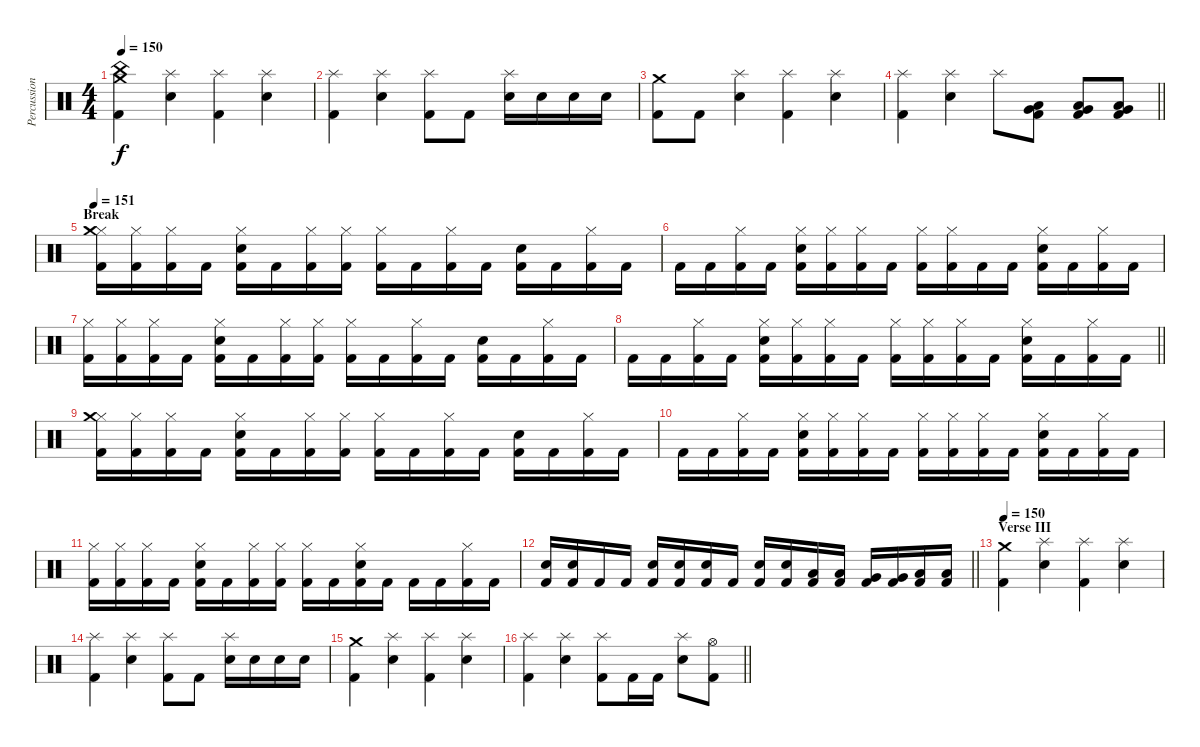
\track ("Percussion" "Percussion") {instrument percussion}
\staff {score}
\articulation defaults
\ts (4 4)
\section ("" "")
\tempo 150
\clef neutral
\ks c
("Kick (hit) 2" "China (hit)" "Crash medium (hit)").4{dy f} ("Snare (hit) 2" "Splash (hit)").4 ("Kick (hit) 2" "Splash (hit)").4 ("Snare (hit) 2" "Splash (hit)").4 |
("Kick (hit) 2" "Splash (hit)").4 ("Snare (hit) 2" "Splash (hit)").4 ("Kick (hit) 2" "Splash (hit)").8 "Kick (hit) 2".8 ("Snare (hit) 2" "Splash (hit)").16 "Snare (hit) 2".16 "Snare (hit) 2".16 "Snare (hit) 2".16 |
("Kick (hit) 2" "Crash medium (hit)").8 "Kick (hit) 2".8 ("Snare (hit) 2" "Splash (hit)").4 ("Kick (hit) 2" "Splash (hit)").4 ("Snare (hit) 2" "Splash (hit)").4 |
\barLineRight lightlight
("Kick (hit) 2" "Splash (hit)").4 ("Snare (hit) 2" "Splash (hit)").4 "Splash (hit)".8 ("Kick (hit) 2" "Low Tom (hit)" "Very Low Tom (hit)").8 ("Kick (hit) 2" "Low Tom (hit)" "Very Low Tom (hit)").8 ("Kick (hit) 2" "Low Tom (hit)" "Very Low Tom (hit)").8 |
\section ("" "Break")
\tempo 151
("Kick (hit) 2" "Hi-Hat (closed)" "Crash medium (hit)").16 ("Kick (hit) 2" "Hi-Hat (closed)").16 ("Kick (hit) 2" "Hi-Hat (closed)").16 "Kick (hit) 2".16 ("Kick (hit) 2" "Snare (hit) 2" "Hi-Hat (closed)").16 "Kick (hit) 2".16 ("Kick (hit) 2" "Hi-Hat (closed)").16 ("Kick (hit) 2" "Hi-Hat (closed)").16 ("Kick (hit) 2" "Hi-Hat (closed)").16 "Kick (hit) 2".16 ("Kick (hit) 2" "Hi-Hat (closed)").16 "Kick (hit) 2".16 ("Kick (hit) 2" "Snare (hit) 2").16 "Kick (hit) 2".16 ("Kick (hit) 2" "Hi-Hat (closed)").16 "Kick (hit) 2".16 |
"Kick (hit) 2".16 "Kick (hit) 2".16 ("Kick (hit) 2" "Hi-Hat (closed)").16 "Kick (hit) 2".16 ("Kick (hit) 2" "Snare (hit) 2" "Hi-Hat (closed)").16 ("Kick (hit) 2" "Hi-Hat (closed)").16 ("Kick (hit) 2" "Hi-Hat (closed)").16 "Kick (hit) 2".16 ("Kick (hit) 2" "Hi-Hat (closed)").16 ("Kick (hit) 2" "Hi-Hat (closed)").16 "Kick (hit) 2".16 "Kick (hit) 2".16 ("Kick (hit) 2" "Snare (hit) 2" "Hi-Hat (closed)").16 "Kick (hit) 2".16 ("Kick (hit) 2" "Hi-Hat (closed)").16 "Kick (hit) 2".16 |
("Kick (hit) 2" "Hi-Hat (closed)").16 ("Kick (hit) 2" "Hi-Hat (closed)").16 ("Kick (hit) 2" "Hi-Hat (closed)").16 "Kick (hit) 2".16 ("Kick (hit) 2" "Snare (hit) 2" "Hi-Hat (closed)").16 "Kick (hit) 2".16 ("Kick (hit) 2" "Hi-Hat (closed)").16 ("Kick (hit) 2" "Hi-Hat (closed)").16 ("Kick (hit) 2" "Hi-Hat (closed)").16 "Kick (hit) 2".16 ("Kick (hit) 2" "Hi-Hat (closed)").16 "Kick (hit) 2".16 ("Kick (hit) 2" "Snare (hit) 2").16 "Kick (hit) 2".16 ("Kick (hit) 2" "Hi-Hat (closed)").16 "Kick (hit) 2".16 |
\barLineRight lightlight "Kick (hit) 2".16 "Kick (hit) 2".16
("Kick (hit) 2" "Hi-Hat (closed)").16 "Kick (hit) 2".16 ("Kick (hit) 2" "Snare (hit) 2" "Hi-Hat (closed)").16 ("Kick (hit) 2" "Hi-Hat (closed)").16 ("Kick (hit) 2" "Hi-Hat (closed)").16 "Kick (hit) 2".16 ("Kick (hit) 2" "Hi-Hat (closed)").16 ("Kick (hit) 2" "Hi-Hat (closed)").16 ("Kick (hit) 2" "Hi-Hat (closed)").16 "Kick (hit) 2".16 ("Kick (hit) 2" "Snare (hit) 2" "Hi-Hat (closed)").16 "Kick (hit) 2".16 ("Kick (hit) 2" "Hi-Hat (closed)").16 "Kick (hit) 2".16 |
\section ("" "")
("Kick (hit) 2" "Hi-Hat (closed)" "Crash medium (hit)").16 ("Kick (hit) 2" "Hi-Hat (closed)").16 ("Kick (hit) 2" "Hi-Hat (closed)").16 "Kick (hit) 2".16 ("Kick (hit) 2" "Snare (hit) 2" "Hi-Hat (closed)").16 "Kick (hit) 2".16 ("Kick (hit) 2" "Hi-Hat (closed)").16 ("Kick (hit) 2" "Hi-Hat (closed)").16 ("Kick (hit) 2" "Hi-Hat (closed)").16 "Kick (hit) 2".16 ("Kick (hit) 2" "Hi-Hat (closed)").16 "Kick (hit) 2".16 ("Kick (hit) 2" "Snare (hit) 2").16 "Kick (hit) 2".16 ("Kick (hit) 2" "Hi-Hat (closed)").16 "Kick (hit) 2".16 |
"Kick (hit) 2".16 "Kick (hit) 2".16 ("Kick (hit) 2" "Hi-Hat (closed)").16 "Kick (hit) 2".16 ("Kick (hit) 2" "Snare (hit) 2" "Hi-Hat (closed)").16 ("Kick (hit) 2" "Hi-Hat (closed)").16 ("Kick (hit) 2" "Hi-Hat (closed)").16 "Kick (hit) 2".16 ("Kick (hit) 2" "Hi-Hat (closed)").16 ("Kick (hit) 2" "Hi-Hat (closed)").16 ("Kick (hit) 2" "Hi-Hat (closed)").16 "Kick (hit) 2".16 ("Kick (hit) 2" "Snare (hit) 2" "Hi-Hat (closed)").16 "Kick (hit) 2".16 ("Kick (hit) 2" "Hi-Hat (closed)").16 "Kick (hit) 2".16 |
("Kick (hit) 2" "Hi-Hat (closed)").16 ("Kick (hit) 2" "Hi-Hat (closed)").16 ("Kick (hit) 2" "Hi-Hat (closed)").16 "Kick (hit) 2".16 ("Kick (hit) 2" "Snare (hit) 2" "Hi-Hat (closed)").16 "Kick (hit) 2".16 ("Kick (hit) 2" "Hi-Hat (closed)").16 ("Kick (hit) 2" "Hi-Hat (closed)").16 ("Kick (hit) 2" "Hi-Hat (closed)").16 "Kick (hit) 2".16 ("Kick (hit) 2" "Snare (hit) 2" "Hi-Hat (closed)").16 "Kick (hit) 2".16 "Kick (hit) 2".16 "Kick (hit) 2".16 ("Kick (hit) 2" "Hi-Hat (closed)").16 "Kick (hit) 2".16 |
\barLineRight lightlight
("Kick (hit) 2" "Snare (hit) 2").16 ("Kick (hit) 2" "Snare (hit) 2").16 "Kick (hit) 2".16 "Kick (hit) 2".16 ("Kick (hit) 2" "Snare (hit) 2").16 ("Kick (hit) 2" "Snare (hit) 2").16 ("Kick (hit) 2" "Snare (hit) 2").16 "Kick (hit) 2".16 ("Kick (hit) 2" "Snare (hit) 2").16 ("Kick (hit) 2" "Snare (hit) 2").16 ("Kick (hit) 2" "Low Tom (hit)").16 ("Kick (hit) 2" "Low Tom (hit)").16 ("Kick (hit) 2" "Very Low Tom (hit)").16 ("Kick (hit) 2" "Very Low Tom (hit)").16 ("Kick (hit) 2" "Low Floor Tom (hit)").16 ("Kick (hit) 2" "Low Floor Tom (hit)").16 |
\section ("" "Verse III")
\tempo 150
("Kick (hit) 2" "Crash medium (hit)").4 ("Snare (hit) 2" "Splash (hit)").4 ("Kick (hit) 2" "Splash (hit)").4 ("Snare (hit) 2" "Splash (hit)").4 |
("Kick (hit) 2" "Splash (hit)").4 ("Snare (hit) 2" "Splash (hit)").4 ("Kick (hit) 2" "Splash (hit)").8 "Kick (hit) 2".8 ("Snare (hit) 2" "Splash (hit)").16 "Snare (hit) 2".16 "Snare (hit) 2".16 "Snare (hit) 2".16 |
("Kick (hit) 2" "Crash medium (hit)").4 ("Snare (hit) 2" "Splash (hit)").4 ("Kick (hit) 2" "Splash (hit)").4 ("Snare (hit) 2" "Splash (hit)").4 |
\barLineRight lightlight
("Kick (hit) 2" "Splash (hit)").4 ("Snare (hit) 2" "Splash (hit)").4 ("Kick (hit) 2" "Splash (hit)").8 "Kick (hit) 2".16 "Kick (hit) 2".16 ("Snare (hit) 2" "Splash (hit)").8 ("Kick (hit) 2" "Hi-Hat (open)").8
